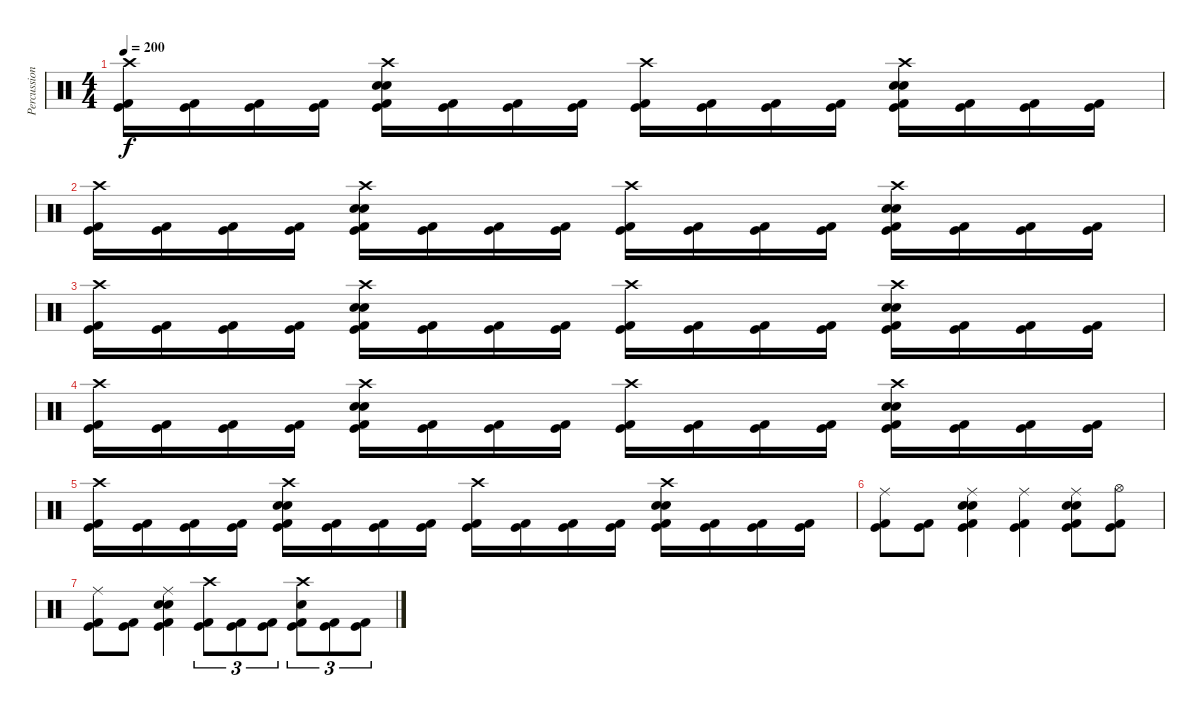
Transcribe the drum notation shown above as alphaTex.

\track ("Percussion" "Percussion") {instrument percussion}
\staff {score}
\articulation defaults
\ts (4 4)
\tempo 200
\clef neutral
\ks c
("Crash high (hit)" "Kick (hit) 2" "Kick (hit)").16{dy f} ("Kick (hit) 2" "Kick (hit)").16 ("Kick (hit) 2" "Kick (hit)").16 ("Kick (hit) 2" "Kick (hit)").16 ("Electric Snare (hit)" "Electric Snare (hit)" "Crash high (hit)" "Kick (hit) 2" "Kick (hit)").16 ("Kick (hit) 2" "Kick (hit)").16 ("Kick (hit) 2" "Kick (hit)").16 ("Kick (hit) 2" "Kick (hit)").16 ("Crash high (hit)" "Kick (hit) 2" "Kick (hit)").16 ("Kick (hit) 2" "Kick (hit)").16 ("Kick (hit) 2" "Kick (hit)").16 ("Kick (hit) 2" "Kick (hit)").16 ("Electric Snare (hit)" "Electric Snare (hit)" "Crash high (hit)" "Kick (hit) 2" "Kick (hit)").16 ("Kick (hit) 2" "Kick (hit)").16 ("Kick (hit) 2" "Kick (hit)").16 ("Kick (hit) 2" "Kick (hit)").16 |
("Crash high (hit)" "Kick (hit) 2" "Kick (hit)").16 ("Kick (hit) 2" "Kick (hit)").16 ("Kick (hit) 2" "Kick (hit)").16 ("Kick (hit) 2" "Kick (hit)").16 ("Electric Snare (hit)" "Electric Snare (hit)" "Crash high (hit)" "Kick (hit) 2" "Kick (hit)").16 ("Kick (hit) 2" "Kick (hit)").16 ("Kick (hit) 2" "Kick (hit)").16 ("Kick (hit) 2" "Kick (hit)").16 ("Crash high (hit)" "Kick (hit) 2" "Kick (hit)").16 ("Kick (hit) 2" "Kick (hit)").16 ("Kick (hit) 2" "Kick (hit)").16 ("Kick (hit) 2" "Kick (hit)").16 ("Electric Snare (hit)" "Electric Snare (hit)" "Crash high (hit)" "Kick (hit) 2" "Kick (hit)").16 ("Kick (hit) 2" "Kick (hit)").16 ("Kick (hit) 2" "Kick (hit)").16 ("Kick (hit) 2" "Kick (hit)").16 |
("Crash high (hit)" "Kick (hit) 2" "Kick (hit)").16 ("Kick (hit) 2" "Kick (hit)").16 ("Kick (hit) 2" "Kick (hit)").16 ("Kick (hit) 2" "Kick (hit)").16 ("Electric Snare (hit)" "Electric Snare (hit)" "Crash high (hit)" "Kick (hit) 2" "Kick (hit)").16 ("Kick (hit) 2" "Kick (hit)").16 ("Kick (hit) 2" "Kick (hit)").16 ("Kick (hit) 2" "Kick (hit)").16 ("Crash high (hit)" "Kick (hit) 2" "Kick (hit)").16 ("Kick (hit) 2" "Kick (hit)").16 ("Kick (hit) 2" "Kick (hit)").16 ("Kick (hit) 2" "Kick (hit)").16 ("Electric Snare (hit)" "Electric Snare (hit)" "Crash high (hit)" "Kick (hit) 2" "Kick (hit)").16 ("Kick (hit) 2" "Kick (hit)").16 ("Kick (hit) 2" "Kick (hit)").16 ("Kick (hit) 2" "Kick (hit)").16 |
("Crash high (hit)" "Kick (hit) 2" "Kick (hit)").16 ("Kick (hit) 2" "Kick (hit)").16 ("Kick (hit) 2" "Kick (hit)").16 ("Kick (hit) 2" "Kick (hit)").16 ("Electric Snare (hit)" "Electric Snare (hit)" "Crash high (hit)" "Kick (hit) 2" "Kick (hit)").16 ("Kick (hit) 2" "Kick (hit)").16 ("Kick (hit) 2" "Kick (hit)").16 ("Kick (hit) 2" "Kick (hit)").16 ("Crash high (hit)" "Kick (hit) 2" "Kick (hit)").16 ("Kick (hit) 2" "Kick (hit)").16 ("Kick (hit) 2" "Kick (hit)").16 ("Kick (hit) 2" "Kick (hit)").16 ("Electric Snare (hit)" "Electric Snare (hit)" "Crash high (hit)" "Kick (hit) 2" "Kick (hit)").16 ("Kick (hit) 2" "Kick (hit)").16 ("Kick (hit) 2" "Kick (hit)").16 ("Kick (hit) 2" "Kick (hit)").16 |
("Crash high (hit)" "Kick (hit) 2" "Kick (hit)").16 ("Kick (hit) 2" "Kick (hit)").16 ("Kick (hit) 2" "Kick (hit)").16 ("Kick (hit) 2" "Kick (hit)").16 ("Electric Snare (hit)" "Electric Snare (hit)" "Crash high (hit)" "Kick (hit) 2" "Kick (hit)").16 ("Kick (hit) 2" "Kick (hit)").16 ("Kick (hit) 2" "Kick (hit)").16 ("Kick (hit) 2" "Kick (hit)").16 ("Crash high (hit)" "Kick (hit) 2" "Kick (hit)").16 ("Kick (hit) 2" "Kick (hit)").16 ("Kick (hit) 2" "Kick (hit)").16 ("Kick (hit) 2" "Kick (hit)").16 ("Electric Snare (hit)" "Electric Snare (hit)" "Crash high (hit)" "Kick (hit) 2" "Kick (hit)").16 ("Kick (hit) 2" "Kick (hit)").16 ("Kick (hit) 2" "Kick (hit)").16 ("Kick (hit) 2" "Kick (hit)").16 |
("Ride (middle)" "Kick (hit) 2" "Kick (hit)").8 ("Kick (hit) 2" "Kick (hit)").8 ("Ride (middle)" "Electric Snare (hit)" "Electric Snare (hit)" "Kick (hit) 2" "Kick (hit)").4 ("Ride (middle)" "Kick (hit) 2" "Kick (hit)").4 ("Ride (middle)" "Electric Snare (hit)" "Electric Snare (hit)" "Kick (hit) 2" "Kick (hit)").8 ("Hi-Hat (open)" "Kick (hit) 2" "Kick (hit)").8 |
("Ride (middle)" "Kick (hit) 2" "Kick (hit)").8 ("Kick (hit) 2" "Kick (hit)").8 ("Ride (middle)" "Electric Snare (hit)" "Electric Snare (hit)" "Kick (hit) 2" "Kick (hit)").4 ("Crash high (hit)" "Kick (hit) 2" "Kick (hit)").8{tu (3 2)} ("Kick (hit) 2" "Kick (hit)").8{tu (3 2)} ("Kick (hit) 2" "Kick (hit)").8{tu (3 2)} ("Crash high (hit)" "Electric Snare (hit)" "Kick (hit) 2" "Kick (hit)").8{tu (3 2)} ("Kick (hit) 2" "Kick (hit)").8{tu (3 2)} ("Kick (hit) 2" "Kick (hit)").8{tu (3 2)}
